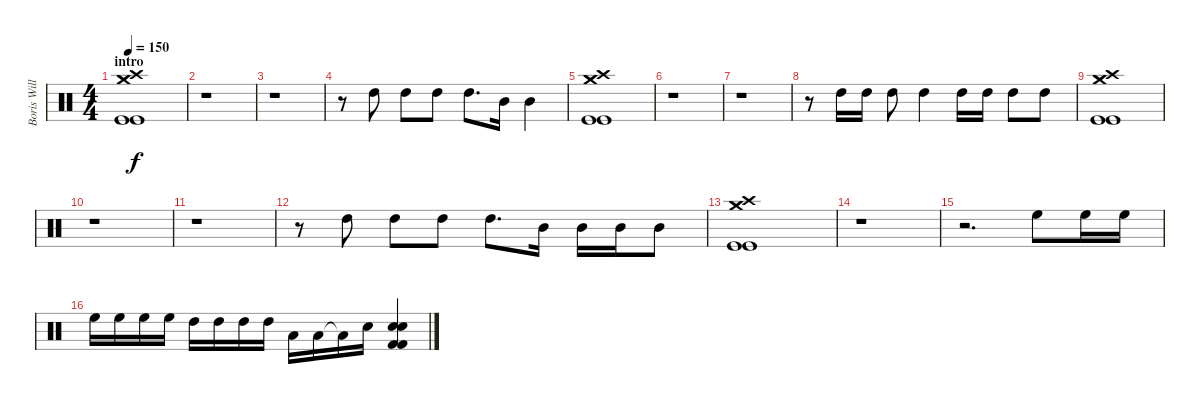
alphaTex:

\track ("Boris Williams" "Boris Will") {instrument percussion}
\staff {score}
\articulation defaults
\ts (4 4)
\section ("" "intro")
\tempo 150
\clef neutral
\ks c
("Crash high (hit)" "Kick (hit)" "Kick (hit)" "Crash medium (hit)" "Crash medium (hit)").1{dy f} |
r.1 |
r.1 |
r.8 "High Tom (hit)".8 "High Tom (hit)".8 "High Tom (hit)".8 "High Tom (hit)".8{d} "Mid Tom (hit)".16 "Mid Tom (hit)".4 |
("Crash high (hit)" "Kick (hit)" "Kick (hit)" "Crash medium (hit)" "Crash medium (hit)").1 |
r.1 |
r.1 |
r.8 "High Tom (hit)".16 "High Tom (hit)".16 "High Tom (hit)".8 "High Tom (hit)".4 "High Tom (hit)".16 "High Tom (hit)".16 "High Tom (hit)".8 "High Tom (hit)".8 |
("Crash high (hit)" "Kick (hit)" "Kick (hit)" "Crash medium (hit)" "Crash medium (hit)").1 |
r.1 |
r.1 |
r.8 "High Tom (hit)".8 "High Tom (hit)".8 "High Tom (hit)".8 "High Tom (hit)".8{d} "Mid Tom (hit)".16 "Mid Tom (hit)".16 "Mid Tom (hit)".16 "Mid Tom (hit)".8 |
("Crash high (hit)" "Kick (hit)" "Kick (hit)" "Crash medium (hit)" "Crash medium (hit)").1 |
r.1 |
r.2{d} "High Floor Tom (hit)".8 "High Floor Tom (hit)".16 "High Floor Tom (hit)".16 |
"High Floor Tom (hit)".16 "High Floor Tom (hit)".16 "High Floor Tom (hit)".16 "High Floor Tom (hit)".16 "High Tom (hit)".16 "High Tom (hit)".16 "High Tom (hit)".16 "High Tom (hit)".16 "Low Tom (hit)".16 "Low Tom (hit)".16 "Low Tom (hit)"{t}.16 "Snare (hit) 2".16 ("Kick (hit) 2" "Kick (hit) 2" "Snare (hit) 2" "Snare (hit) 2").4
